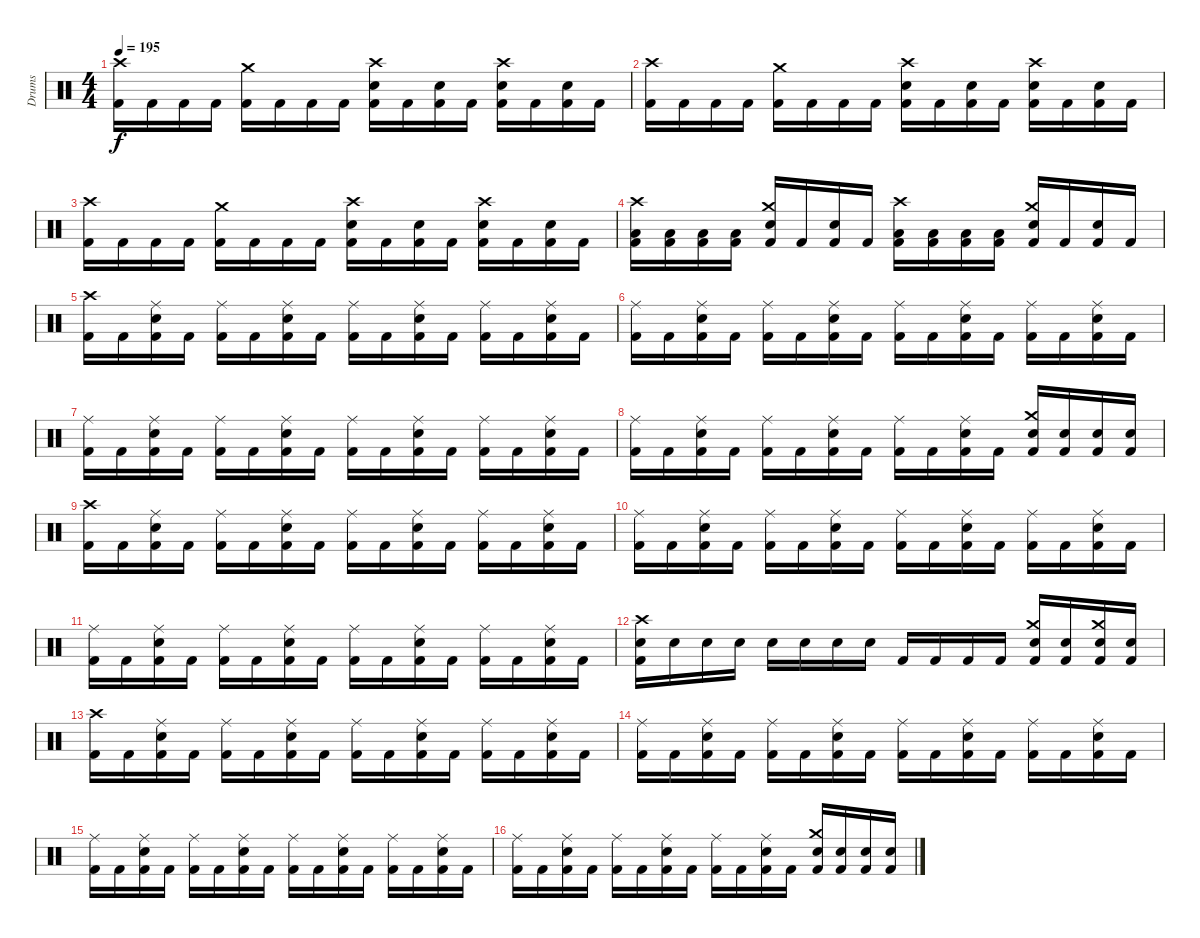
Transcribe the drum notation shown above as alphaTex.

\track ("Drums" "Drums") {instrument percussion}
\staff {score}
\articulation defaults
\ts (4 4)
\tempo 195
\clef neutral
\ks c
("Crash high (hit)" "Kick (hit) 2").16{dy f} "Kick (hit) 2".16 "Kick (hit) 2".16 "Kick (hit) 2".16 ("Crash medium (hit)" "Kick (hit) 2").16 "Kick (hit) 2".16 "Kick (hit) 2".16 "Kick (hit) 2".16 ("Crash high (hit)" "Kick (hit) 2" "Electric Snare (hit)").16 "Kick (hit) 2".16 ("Kick (hit) 2" "Electric Snare (hit)").16 "Kick (hit) 2".16 ("Crash high (hit)" "Kick (hit) 2" "Electric Snare (hit)").16 "Kick (hit) 2".16 ("Kick (hit) 2" "Electric Snare (hit)").16 "Kick (hit) 2".16 |
("Crash high (hit)" "Kick (hit) 2").16 "Kick (hit) 2".16 "Kick (hit) 2".16 "Kick (hit) 2".16 ("Crash medium (hit)" "Kick (hit) 2").16 "Kick (hit) 2".16 "Kick (hit) 2".16 "Kick (hit) 2".16 ("Crash high (hit)" "Kick (hit) 2" "Electric Snare (hit)").16 "Kick (hit) 2".16 ("Kick (hit) 2" "Electric Snare (hit)").16 "Kick (hit) 2".16 ("Crash high (hit)" "Kick (hit) 2" "Electric Snare (hit)").16 "Kick (hit) 2".16 ("Kick (hit) 2" "Electric Snare (hit)").16 "Kick (hit) 2".16 |
("Crash high (hit)" "Kick (hit) 2").16 "Kick (hit) 2".16 "Kick (hit) 2".16 "Kick (hit) 2".16 ("Crash medium (hit)" "Kick (hit) 2").16 "Kick (hit) 2".16 "Kick (hit) 2".16 "Kick (hit) 2".16 ("Crash high (hit)" "Kick (hit) 2" "Electric Snare (hit)").16 "Kick (hit) 2".16 ("Kick (hit) 2" "Electric Snare (hit)").16 "Kick (hit) 2".16 ("Crash high (hit)" "Kick (hit) 2" "Electric Snare (hit)").16 "Kick (hit) 2".16 ("Kick (hit) 2" "Electric Snare (hit)").16 "Kick (hit) 2".16 |
("Crash high (hit)" "Kick (hit) 2" "Low Tom (hit)").16 ("Kick (hit) 2" "Low Tom (hit)").16 ("Kick (hit) 2" "Low Tom (hit)").16 ("Kick (hit) 2" "Low Tom (hit)").16 ("Crash medium (hit)" "Kick (hit) 2" "Electric Snare (hit)").16 "Kick (hit) 2".16 ("Kick (hit) 2" "Electric Snare (hit)").16 "Kick (hit) 2".16 ("Crash high (hit)" "Kick (hit) 2" "Low Floor Tom (hit)").16 ("Kick (hit) 2" "Low Floor Tom (hit)").16 ("Kick (hit) 2" "Low Floor Tom (hit)").16 ("Kick (hit) 2" "Low Floor Tom (hit)").16 ("Crash medium (hit)" "Kick (hit) 2" "Electric Snare (hit)").16 "Kick (hit) 2".16 ("Kick (hit) 2" "Electric Snare (hit)").16 "Kick (hit) 2".16 |
("Crash high (hit)" "Kick (hit) 2").16 "Kick (hit) 2".16 ("Ride (middle)" "Kick (hit) 2" "Electric Snare (hit)").16 "Kick (hit) 2".16 ("Ride (middle)" "Kick (hit) 2").16 "Kick (hit) 2".16 ("Ride (middle)" "Kick (hit) 2" "Electric Snare (hit)").16 "Kick (hit) 2".16 ("Ride (middle)" "Kick (hit) 2").16 "Kick (hit) 2".16 ("Ride (middle)" "Kick (hit) 2" "Electric Snare (hit)").16 "Kick (hit) 2".16 ("Ride (middle)" "Kick (hit) 2").16 "Kick (hit) 2".16 ("Ride (middle)" "Kick (hit) 2" "Electric Snare (hit)").16 "Kick (hit) 2".16 |
("Ride (middle)" "Kick (hit) 2").16 "Kick (hit) 2".16 ("Ride (middle)" "Kick (hit) 2" "Electric Snare (hit)").16 "Kick (hit) 2".16 ("Ride (middle)" "Kick (hit) 2").16 "Kick (hit) 2".16 ("Ride (middle)" "Kick (hit) 2" "Electric Snare (hit)").16 "Kick (hit) 2".16 ("Ride (middle)" "Kick (hit) 2").16 "Kick (hit) 2".16 ("Ride (middle)" "Kick (hit) 2" "Electric Snare (hit)").16 "Kick (hit) 2".16 ("Ride (middle)" "Kick (hit) 2").16 "Kick (hit) 2".16 ("Ride (middle)" "Kick (hit) 2" "Electric Snare (hit)").16 "Kick (hit) 2".16 |
("Ride (middle)" "Kick (hit) 2").16 "Kick (hit) 2".16 ("Ride (middle)" "Kick (hit) 2" "Electric Snare (hit)").16 "Kick (hit) 2".16 ("Ride (middle)" "Kick (hit) 2").16 "Kick (hit) 2".16 ("Ride (middle)" "Kick (hit) 2" "Electric Snare (hit)").16 "Kick (hit) 2".16 ("Ride (middle)" "Kick (hit) 2").16 "Kick (hit) 2".16 ("Ride (middle)" "Kick (hit) 2" "Electric Snare (hit)").16 "Kick (hit) 2".16 ("Ride (middle)" "Kick (hit) 2").16 "Kick (hit) 2".16 ("Ride (middle)" "Kick (hit) 2" "Electric Snare (hit)").16 "Kick (hit) 2".16 |
("Ride (middle)" "Kick (hit) 2").16 "Kick (hit) 2".16 ("Ride (middle)" "Kick (hit) 2" "Electric Snare (hit)").16 "Kick (hit) 2".16 ("Ride (middle)" "Kick (hit) 2").16 "Kick (hit) 2".16 ("Ride (middle)" "Kick (hit) 2" "Electric Snare (hit)").16 "Kick (hit) 2".16 ("Ride (middle)" "Kick (hit) 2").16 "Kick (hit) 2".16 ("Ride (middle)" "Kick (hit) 2" "Electric Snare (hit)").16 "Kick (hit) 2".16 ("Crash medium (hit)" "Kick (hit) 2" "Electric Snare (hit)").16 ("Kick (hit) 2" "Electric Snare (hit)").16 ("Kick (hit) 2" "Electric Snare (hit)").16 ("Kick (hit) 2" "Electric Snare (hit)").16 |
("Crash high (hit)" "Kick (hit) 2").16 "Kick (hit) 2".16 ("Ride (middle)" "Kick (hit) 2" "Electric Snare (hit)").16 "Kick (hit) 2".16 ("Ride (middle)" "Kick (hit) 2").16 "Kick (hit) 2".16 ("Ride (middle)" "Kick (hit) 2" "Electric Snare (hit)").16 "Kick (hit) 2".16 ("Ride (middle)" "Kick (hit) 2").16 "Kick (hit) 2".16 ("Ride (middle)" "Kick (hit) 2" "Electric Snare (hit)").16 "Kick (hit) 2".16 ("Ride (middle)" "Kick (hit) 2").16 "Kick (hit) 2".16 ("Ride (middle)" "Kick (hit) 2" "Electric Snare (hit)").16 "Kick (hit) 2".16 |
("Ride (middle)" "Kick (hit) 2").16 "Kick (hit) 2".16 ("Ride (middle)" "Kick (hit) 2" "Electric Snare (hit)").16 "Kick (hit) 2".16 ("Ride (middle)" "Kick (hit) 2").16 "Kick (hit) 2".16 ("Ride (middle)" "Kick (hit) 2" "Electric Snare (hit)").16 "Kick (hit) 2".16 ("Ride (middle)" "Kick (hit) 2").16 "Kick (hit) 2".16 ("Ride (middle)" "Kick (hit) 2" "Electric Snare (hit)").16 "Kick (hit) 2".16 ("Ride (middle)" "Kick (hit) 2").16 "Kick (hit) 2".16 ("Ride (middle)" "Kick (hit) 2" "Electric Snare (hit)").16 "Kick (hit) 2".16 |
("Ride (middle)" "Kick (hit) 2").16 "Kick (hit) 2".16 ("Ride (middle)" "Kick (hit) 2" "Electric Snare (hit)").16 "Kick (hit) 2".16 ("Ride (middle)" "Kick (hit) 2").16 "Kick (hit) 2".16 ("Ride (middle)" "Kick (hit) 2" "Electric Snare (hit)").16 "Kick (hit) 2".16 ("Ride (middle)" "Kick (hit) 2").16 "Kick (hit) 2".16 ("Ride (middle)" "Kick (hit) 2" "Electric Snare (hit)").16 "Kick (hit) 2".16 ("Ride (middle)" "Kick (hit) 2").16 "Kick (hit) 2".16 ("Ride (middle)" "Kick (hit) 2" "Electric Snare (hit)").16 "Kick (hit) 2".16 |
("Crash high (hit)" "Electric Snare (hit)" "Kick (hit) 2").16 "Electric Snare (hit)".16 "Electric Snare (hit)".16 "Electric Snare (hit)".16 "Electric Snare (hit)".16 "Electric Snare (hit)".16 "Electric Snare (hit)".16 "Electric Snare (hit)".16 "Kick (hit) 2".16 "Kick (hit) 2".16 "Kick (hit) 2".16 "Kick (hit) 2".16 ("Electric Snare (hit)" "Crash medium (hit)" "Kick (hit) 2").16 ("Electric Snare (hit)" "Kick (hit) 2").16 ("Electric Snare (hit)" "Crash medium (hit)" "Kick (hit) 2").16 ("Electric Snare (hit)" "Kick (hit) 2").16 |
("Crash high (hit)" "Kick (hit) 2").16 "Kick (hit) 2".16 ("Ride (middle)" "Kick (hit) 2" "Electric Snare (hit)").16 "Kick (hit) 2".16 ("Ride (middle)" "Kick (hit) 2").16 "Kick (hit) 2".16 ("Ride (middle)" "Kick (hit) 2" "Electric Snare (hit)").16 "Kick (hit) 2".16 ("Ride (middle)" "Kick (hit) 2").16 "Kick (hit) 2".16 ("Ride (middle)" "Kick (hit) 2" "Electric Snare (hit)").16 "Kick (hit) 2".16 ("Ride (middle)" "Kick (hit) 2").16 "Kick (hit) 2".16 ("Ride (middle)" "Kick (hit) 2" "Electric Snare (hit)").16 "Kick (hit) 2".16 |
("Ride (middle)" "Kick (hit) 2").16 "Kick (hit) 2".16 ("Ride (middle)" "Kick (hit) 2" "Electric Snare (hit)").16 "Kick (hit) 2".16 ("Ride (middle)" "Kick (hit) 2").16 "Kick (hit) 2".16 ("Ride (middle)" "Kick (hit) 2" "Electric Snare (hit)").16 "Kick (hit) 2".16 ("Ride (middle)" "Kick (hit) 2").16 "Kick (hit) 2".16 ("Ride (middle)" "Kick (hit) 2" "Electric Snare (hit)").16 "Kick (hit) 2".16 ("Ride (middle)" "Kick (hit) 2").16 "Kick (hit) 2".16 ("Ride (middle)" "Kick (hit) 2" "Electric Snare (hit)").16 "Kick (hit) 2".16 |
("Ride (middle)" "Kick (hit) 2").16 "Kick (hit) 2".16 ("Ride (middle)" "Kick (hit) 2" "Electric Snare (hit)").16 "Kick (hit) 2".16 ("Ride (middle)" "Kick (hit) 2").16 "Kick (hit) 2".16 ("Ride (middle)" "Kick (hit) 2" "Electric Snare (hit)").16 "Kick (hit) 2".16 ("Ride (middle)" "Kick (hit) 2").16 "Kick (hit) 2".16 ("Ride (middle)" "Kick (hit) 2" "Electric Snare (hit)").16 "Kick (hit) 2".16 ("Ride (middle)" "Kick (hit) 2").16 "Kick (hit) 2".16 ("Ride (middle)" "Kick (hit) 2" "Electric Snare (hit)").16 "Kick (hit) 2".16 |
("Ride (middle)" "Kick (hit) 2").16 "Kick (hit) 2".16 ("Ride (middle)" "Kick (hit) 2" "Electric Snare (hit)").16 "Kick (hit) 2".16 ("Ride (middle)" "Kick (hit) 2").16 "Kick (hit) 2".16 ("Ride (middle)" "Kick (hit) 2" "Electric Snare (hit)").16 "Kick (hit) 2".16 ("Ride (middle)" "Kick (hit) 2").16 "Kick (hit) 2".16 ("Ride (middle)" "Kick (hit) 2" "Electric Snare (hit)").16 "Kick (hit) 2".16 ("Crash medium (hit)" "Kick (hit) 2" "Electric Snare (hit)").16 ("Kick (hit) 2" "Electric Snare (hit)").16 ("Kick (hit) 2" "Electric Snare (hit)").16 ("Kick (hit) 2" "Electric Snare (hit)").16
